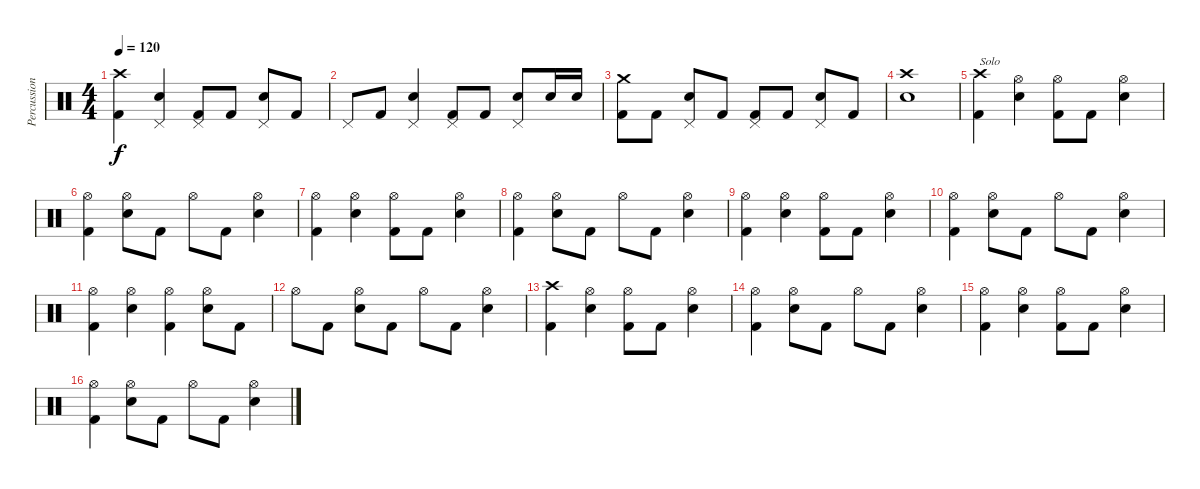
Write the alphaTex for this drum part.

\track ("Percussion" "Percussion") {instrument percussion}
\staff {score}
\articulation defaults
\ts (4 4)
\tempo 120
\clef neutral
\ks c
("Crash high (hit)" "Kick (hit) 2").4{dy f} ("Pedal Hi-Hat (hit)" "Snare (hit) 2").4 ("Pedal Hi-Hat (hit)" "Kick (hit) 2").8 "Kick (hit) 2".8 ("Pedal Hi-Hat (hit)" "Snare (hit) 2").8 "Kick (hit) 2".8 |
"Pedal Hi-Hat (hit)".8 "Kick (hit) 2".8 ("Pedal Hi-Hat (hit)" "Snare (hit) 2").4 ("Pedal Hi-Hat (hit)" "Kick (hit) 2").8 "Kick (hit) 2".8 ("Pedal Hi-Hat (hit)" "Snare (hit) 2").8 "Snare (hit) 2".16 "Snare (hit) 2".16 |
("Crash medium (hit)" "Kick (hit) 2").8 "Kick (hit) 2".8 ("Pedal Hi-Hat (hit)" "Snare (hit) 2").8 "Kick (hit) 2".8 ("Pedal Hi-Hat (hit)" "Kick (hit) 2").8 "Kick (hit) 2".8 ("Pedal Hi-Hat (hit)" "Snare (hit) 2").8 "Kick (hit) 2".8 |
("Crash high (hit)" "Snare (hit) 2").1 |
("Crash high (hit)" "Kick (hit) 2").4{txt "Solo"} ("Hi-Hat (open)" "Snare (hit) 2").4 ("Hi-Hat (open)" "Kick (hit) 2").8 "Kick (hit) 2".8 ("Hi-Hat (open)" "Snare (hit) 2").4 |
("Hi-Hat (open)" "Kick (hit) 2").4 ("Hi-Hat (open)" "Snare (hit) 2").8 "Kick (hit) 2".8 "Hi-Hat (open)".8 "Kick (hit) 2".8 ("Hi-Hat (open)" "Snare (hit) 2").4 |
("Hi-Hat (open)" "Kick (hit) 2").4 ("Hi-Hat (open)" "Snare (hit) 2").4 ("Hi-Hat (open)" "Kick (hit) 2").8 "Kick (hit) 2".8 ("Hi-Hat (open)" "Snare (hit) 2").4 |
("Hi-Hat (open)" "Kick (hit) 2").4 ("Hi-Hat (open)" "Snare (hit) 2").8 "Kick (hit) 2".8 "Hi-Hat (open)".8 "Kick (hit) 2".8 ("Hi-Hat (open)" "Snare (hit) 2").4 |
("Hi-Hat (open)" "Kick (hit) 2").4 ("Hi-Hat (open)" "Snare (hit) 2").4 ("Hi-Hat (open)" "Kick (hit) 2").8 "Kick (hit) 2".8 ("Hi-Hat (open)" "Snare (hit) 2").4 |
("Hi-Hat (open)" "Kick (hit) 2").4 ("Hi-Hat (open)" "Snare (hit) 2").8 "Kick (hit) 2".8 "Hi-Hat (open)".8 "Kick (hit) 2".8 ("Hi-Hat (open)" "Snare (hit) 2").4 |
("Hi-Hat (open)" "Kick (hit) 2").4 ("Hi-Hat (open)" "Snare (hit) 2").4 ("Hi-Hat (open)" "Kick (hit) 2").4 ("Hi-Hat (open)" "Snare (hit) 2").8 "Kick (hit) 2".8 |
"Hi-Hat (open)".8 "Kick (hit) 2".8 ("Hi-Hat (open)" "Snare (hit) 2").8 "Kick (hit) 2".8 "Hi-Hat (open)".8 "Kick (hit) 2".8 ("Hi-Hat (open)" "Snare (hit) 2").4 |
("Crash high (hit)" "Kick (hit) 2").4 ("Hi-Hat (open)" "Snare (hit) 2").4 ("Hi-Hat (open)" "Kick (hit) 2").8 "Kick (hit) 2".8 ("Hi-Hat (open)" "Snare (hit) 2").4 |
("Hi-Hat (open)" "Kick (hit) 2").4 ("Hi-Hat (open)" "Snare (hit) 2").8 "Kick (hit) 2".8 "Hi-Hat (open)".8 "Kick (hit) 2".8 ("Hi-Hat (open)" "Snare (hit) 2").4 |
("Hi-Hat (open)" "Kick (hit) 2").4 ("Hi-Hat (open)" "Snare (hit) 2").4 ("Hi-Hat (open)" "Kick (hit) 2").8 "Kick (hit) 2".8 ("Hi-Hat (open)" "Snare (hit) 2").4 |
("Hi-Hat (open)" "Kick (hit) 2").4 ("Hi-Hat (open)" "Snare (hit) 2").8 "Kick (hit) 2".8 "Hi-Hat (open)".8 "Kick (hit) 2".8 ("Hi-Hat (open)" "Snare (hit) 2").4
